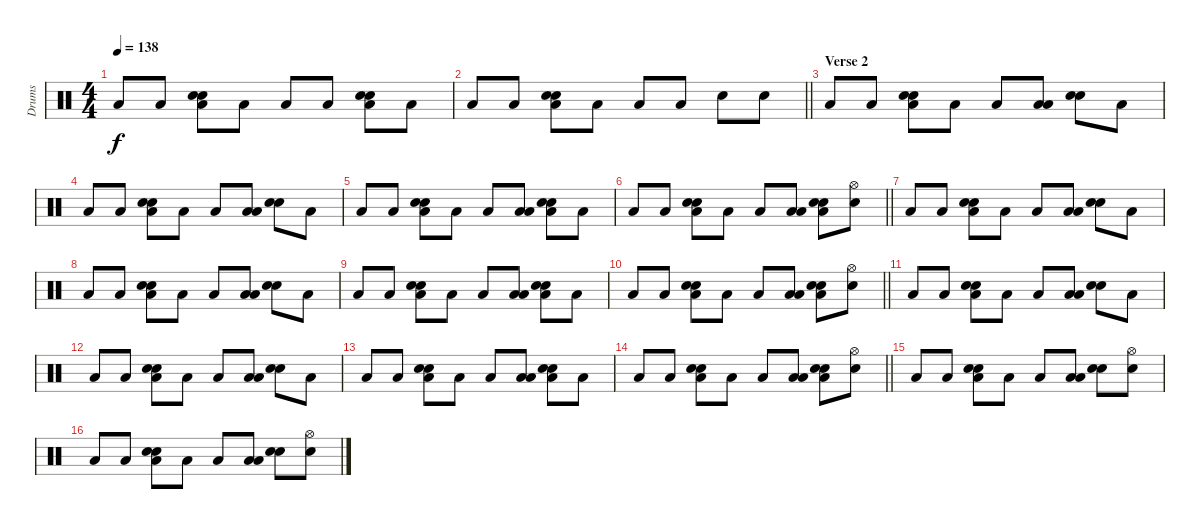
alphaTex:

\track ("Drums" "Drums") {instrument percussion}
\staff {score}
\articulation defaults
\ts (4 4)
\tempo 138
\clef neutral
\ks c "Low Floor Tom (hit)".8{dy f} "Low Floor Tom (hit)".8
("Snare (hit) 2" "Hand Clap (hit)" "Low Floor Tom (hit)").8 "Low Floor Tom (hit)".8 "Low Floor Tom (hit)".8 "Low Floor Tom (hit)".8 ("Snare (hit) 2" "Hand Clap (hit)" "Low Floor Tom (hit)").8 "Low Floor Tom (hit)".8 |
\barLineRight lightlight "Low Floor Tom (hit)".8 "Low Floor Tom (hit)".8
("Snare (hit) 2" "Hand Clap (hit)" "Low Floor Tom (hit)").8 "Low Floor Tom (hit)".8 "Low Floor Tom (hit)".8 "Low Tom (hit)".8 "Snare (hit) 2".8 "Snare (hit) 2".8 |
\section ("" "Verse 2")
"Low Floor Tom (hit)".8 "Low Floor Tom (hit)".8 ("Snare (hit) 2" "Hand Clap (hit)" "Low Floor Tom (hit)").8 "Low Floor Tom (hit)".8 "Low Floor Tom (hit)".8 ("Low Tom (hit)" "Low Floor Tom (hit)").8 ("Snare (hit) 2" "Hand Clap (hit)").8 "Low Floor Tom (hit)".8 |
"Low Floor Tom (hit)".8 "Low Floor Tom (hit)".8 ("Snare (hit) 2" "Hand Clap (hit)" "Low Floor Tom (hit)").8 "Low Floor Tom (hit)".8 "Low Floor Tom (hit)".8 ("Low Tom (hit)" "Low Floor Tom (hit)").8 ("Snare (hit) 2" "Hand Clap (hit)").8 "Low Floor Tom (hit)".8 |
"Low Floor Tom (hit)".8 "Low Floor Tom (hit)".8 ("Snare (hit) 2" "Hand Clap (hit)" "Low Floor Tom (hit)").8 "Low Floor Tom (hit)".8 "Low Floor Tom (hit)".8 ("Low Tom (hit)" "Low Floor Tom (hit)").8 ("Snare (hit) 2" "Hand Clap (hit)" "Low Floor Tom (hit)").8 "Low Floor Tom (hit)".8 |
\barLineRight lightlight "Low Floor Tom (hit)".8 "Low Floor Tom (hit)".8
("Snare (hit) 2" "Hand Clap (hit)" "Low Floor Tom (hit)").8 "Low Floor Tom (hit)".8 "Low Floor Tom (hit)".8 ("Low Tom (hit)" "Low Floor Tom (hit)").8 ("Snare (hit) 2" "Hand Clap (hit)" "Low Floor Tom (hit)").8 ("Hi-Hat (open)" "Snare (hit) 2").8 |
"Low Floor Tom (hit)".8 "Low Floor Tom (hit)".8 ("Snare (hit) 2" "Hand Clap (hit)" "Low Floor Tom (hit)").8 "Low Floor Tom (hit)".8 "Low Floor Tom (hit)".8 ("Low Tom (hit)" "Low Floor Tom (hit)").8 ("Snare (hit) 2" "Hand Clap (hit)").8 "Low Floor Tom (hit)".8 |
"Low Floor Tom (hit)".8 "Low Floor Tom (hit)".8 ("Snare (hit) 2" "Hand Clap (hit)" "Low Floor Tom (hit)").8 "Low Floor Tom (hit)".8 "Low Floor Tom (hit)".8 ("Low Tom (hit)" "Low Floor Tom (hit)").8 ("Snare (hit) 2" "Hand Clap (hit)").8 "Low Floor Tom (hit)".8 |
"Low Floor Tom (hit)".8 "Low Floor Tom (hit)".8 ("Snare (hit) 2" "Hand Clap (hit)" "Low Floor Tom (hit)").8 "Low Floor Tom (hit)".8 "Low Floor Tom (hit)".8 ("Low Tom (hit)" "Low Floor Tom (hit)").8 ("Snare (hit) 2" "Hand Clap (hit)" "Low Floor Tom (hit)").8 "Low Floor Tom (hit)".8 |
\barLineRight lightlight "Low Floor Tom (hit)".8 "Low Floor Tom (hit)".8
("Snare (hit) 2" "Hand Clap (hit)" "Low Floor Tom (hit)").8 "Low Floor Tom (hit)".8 "Low Floor Tom (hit)".8 ("Low Tom (hit)" "Low Floor Tom (hit)").8 ("Snare (hit) 2" "Hand Clap (hit)" "Low Floor Tom (hit)").8 ("Hi-Hat (open)" "Snare (hit) 2").8 |
"Low Floor Tom (hit)".8 "Low Floor Tom (hit)".8 ("Snare (hit) 2" "Hand Clap (hit)" "Low Floor Tom (hit)").8 "Low Floor Tom (hit)".8 "Low Floor Tom (hit)".8 ("Low Tom (hit)" "Low Floor Tom (hit)").8 ("Snare (hit) 2" "Hand Clap (hit)").8 "Low Floor Tom (hit)".8 |
"Low Floor Tom (hit)".8 "Low Floor Tom (hit)".8 ("Snare (hit) 2" "Hand Clap (hit)" "Low Floor Tom (hit)").8 "Low Floor Tom (hit)".8 "Low Floor Tom (hit)".8 ("Low Tom (hit)" "Low Floor Tom (hit)").8 ("Snare (hit) 2" "Hand Clap (hit)").8 "Low Floor Tom (hit)".8 |
"Low Floor Tom (hit)".8 "Low Floor Tom (hit)".8 ("Snare (hit) 2" "Hand Clap (hit)" "Low Floor Tom (hit)").8 "Low Floor Tom (hit)".8 "Low Floor Tom (hit)".8 ("Low Tom (hit)" "Low Floor Tom (hit)").8 ("Snare (hit) 2" "Hand Clap (hit)" "Low Floor Tom (hit)").8 "Low Floor Tom (hit)".8 |
\barLineRight lightlight "Low Floor Tom (hit)".8 "Low Floor Tom (hit)".8
("Snare (hit) 2" "Hand Clap (hit)" "Low Floor Tom (hit)").8 "Low Floor Tom (hit)".8 "Low Floor Tom (hit)".8 ("Low Tom (hit)" "Low Floor Tom (hit)").8 ("Snare (hit) 2" "Hand Clap (hit)" "Low Floor Tom (hit)").8 ("Hi-Hat (open)" "Snare (hit) 2").8 |
"Low Floor Tom (hit)".8 "Low Floor Tom (hit)".8 ("Snare (hit) 2" "Hand Clap (hit)" "Low Floor Tom (hit)").8 "Low Floor Tom (hit)".8 "Low Floor Tom (hit)".8 ("Low Tom (hit)" "Low Floor Tom (hit)").8 ("Snare (hit) 2" "Hand Clap (hit)").8 ("Hi-Hat (open)" "Snare (hit) 2").8 |
"Low Floor Tom (hit)".8 "Low Floor Tom (hit)".8 ("Snare (hit) 2" "Hand Clap (hit)" "Low Floor Tom (hit)").8 "Low Floor Tom (hit)".8 "Low Floor Tom (hit)".8 ("Low Tom (hit)" "Low Floor Tom (hit)").8 ("Snare (hit) 2" "Hand Clap (hit)").8 ("Hi-Hat (open)" "Snare (hit) 2").8
